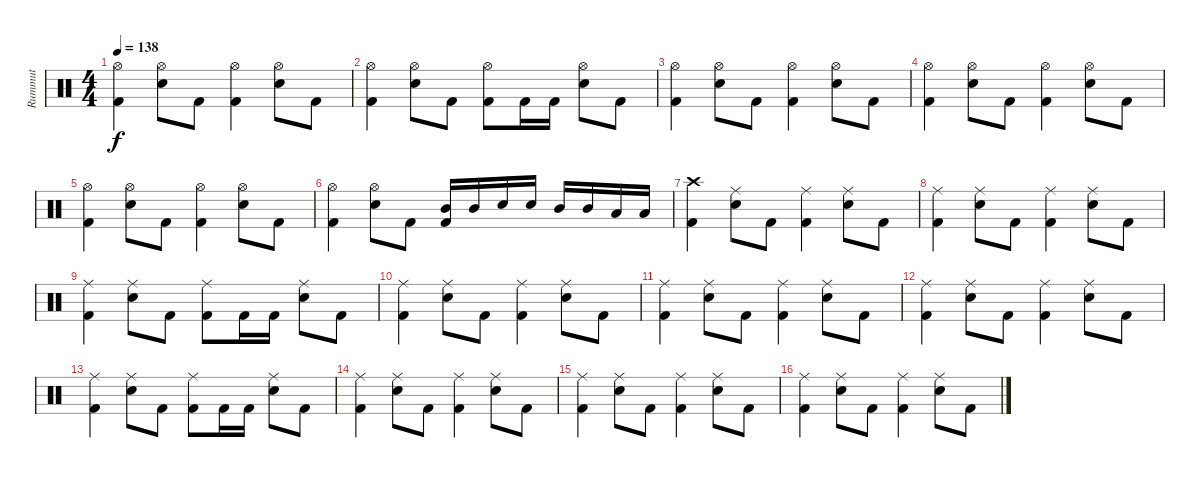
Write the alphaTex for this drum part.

\track ("Rummut" "Rummut") {instrument percussion}
\staff {score}
\articulation defaults
\ts (4 4)
\tempo 138
\clef neutral
\ks c
("Hi-Hat (open)" "Kick (hit) 2").4{dy f} ("Hi-Hat (open)" "Snare (hit) 2").8 "Kick (hit) 2".8 ("Hi-Hat (open)" "Kick (hit) 2").4 ("Hi-Hat (open)" "Snare (hit) 2").8 "Kick (hit) 2".8 |
("Hi-Hat (open)" "Kick (hit) 2").4 ("Hi-Hat (open)" "Snare (hit) 2").8 "Kick (hit) 2".8 ("Hi-Hat (open)" "Kick (hit) 2").8 "Kick (hit) 2".16 "Kick (hit) 2".16 ("Hi-Hat (open)" "Snare (hit) 2").8 "Kick (hit) 2".8 |
("Hi-Hat (open)" "Kick (hit) 2").4 ("Hi-Hat (open)" "Snare (hit) 2").8 "Kick (hit) 2".8 ("Hi-Hat (open)" "Kick (hit) 2").4 ("Hi-Hat (open)" "Snare (hit) 2").8 "Kick (hit) 2".8 |
("Hi-Hat (open)" "Kick (hit) 2").4 ("Hi-Hat (open)" "Snare (hit) 2").8 "Kick (hit) 2".8 ("Hi-Hat (open)" "Kick (hit) 2").4 ("Hi-Hat (open)" "Snare (hit) 2").8 "Kick (hit) 2".8 |
("Hi-Hat (open)" "Kick (hit) 2").4 ("Hi-Hat (open)" "Snare (hit) 2").8 "Kick (hit) 2".8 ("Hi-Hat (open)" "Kick (hit) 2").4 ("Hi-Hat (open)" "Snare (hit) 2").8 "Kick (hit) 2".8 |
("Hi-Hat (open)" "Kick (hit) 2").4 ("Hi-Hat (open)" "Snare (hit) 2").8 "Kick (hit) 2".8 ("Mid Tom (hit)" "Kick (hit) 2").16 "Mid Tom (hit)".16 "Snare (hit) 2".16 "Snare (hit) 2".16 "Mid Tom (hit)".16 "Mid Tom (hit)".16 "Low Tom (hit)".16 "Low Tom (hit)".16 |
("Crash high (hit)" "Kick (hit) 2").4 ("Ride (middle)" "Snare (hit) 2").8 "Kick (hit) 2".8 ("Ride (middle)" "Kick (hit) 2").4 ("Ride (middle)" "Snare (hit) 2").8 "Kick (hit) 2".8 |
("Ride (middle)" "Kick (hit) 2").4 ("Ride (middle)" "Snare (hit) 2").8 "Kick (hit) 2".8 ("Ride (middle)" "Kick (hit) 2").4 ("Ride (middle)" "Snare (hit) 2").8 "Kick (hit) 2".8 |
("Ride (middle)" "Kick (hit) 2").4 ("Ride (middle)" "Snare (hit) 2").8 "Kick (hit) 2".8 ("Ride (middle)" "Kick (hit) 2").8 "Kick (hit) 2".16 "Kick (hit) 2".16 ("Ride (middle)" "Snare (hit) 2").8 "Kick (hit) 2".8 |
("Ride (middle)" "Kick (hit) 2").4 ("Ride (middle)" "Snare (hit) 2").8 "Kick (hit) 2".8 ("Ride (middle)" "Kick (hit) 2").4 ("Ride (middle)" "Snare (hit) 2").8 "Kick (hit) 2".8 |
("Ride (middle)" "Kick (hit) 2").4 ("Ride (middle)" "Snare (hit) 2").8 "Kick (hit) 2".8 ("Ride (middle)" "Kick (hit) 2").4 ("Ride (middle)" "Snare (hit) 2").8 "Kick (hit) 2".8 |
("Ride (middle)" "Kick (hit) 2").4 ("Ride (middle)" "Snare (hit) 2").8 "Kick (hit) 2".8 ("Ride (middle)" "Kick (hit) 2").4 ("Ride (middle)" "Snare (hit) 2").8 "Kick (hit) 2".8 |
("Ride (middle)" "Kick (hit) 2").4 ("Ride (middle)" "Snare (hit) 2").8 "Kick (hit) 2".8 ("Ride (middle)" "Kick (hit) 2").8 "Kick (hit) 2".16 "Kick (hit) 2".16 ("Ride (middle)" "Snare (hit) 2").8 "Kick (hit) 2".8 |
("Ride (middle)" "Kick (hit) 2").4 ("Ride (middle)" "Snare (hit) 2").8 "Kick (hit) 2".8 ("Ride (middle)" "Kick (hit) 2").4 ("Ride (middle)" "Snare (hit) 2").8 "Kick (hit) 2".8 |
("Ride (middle)" "Kick (hit) 2").4 ("Ride (middle)" "Snare (hit) 2").8 "Kick (hit) 2".8 ("Ride (middle)" "Kick (hit) 2").4 ("Ride (middle)" "Snare (hit) 2").8 "Kick (hit) 2".8 |
("Ride (middle)" "Kick (hit) 2").4 ("Ride (middle)" "Snare (hit) 2").8 "Kick (hit) 2".8 ("Ride (middle)" "Kick (hit) 2").4 ("Ride (middle)" "Snare (hit) 2").8 "Kick (hit) 2".8
